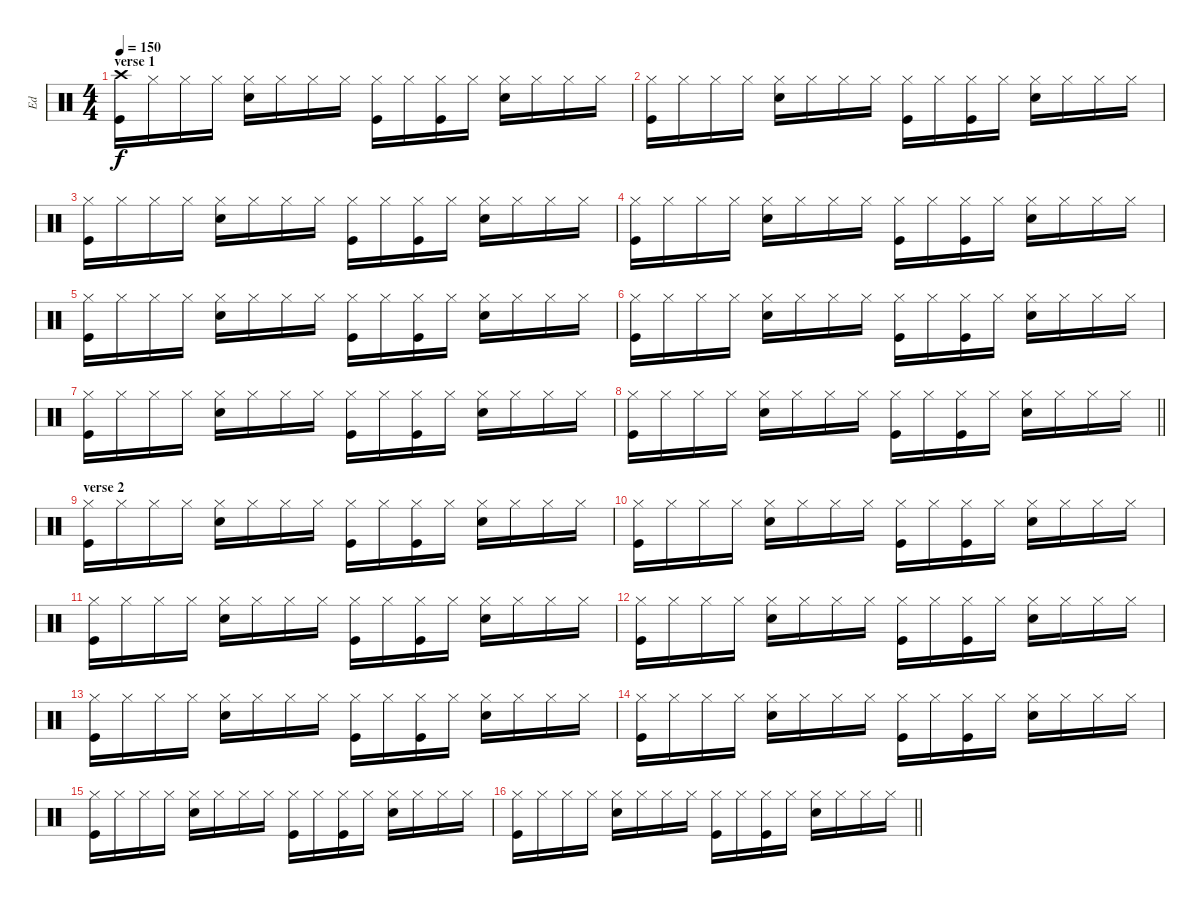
\track ("Ed" "Ed") {instrument percussion}
\staff {score}
\articulation defaults
\ts (4 4)
\section ("" "verse 1")
\tempo 150
\clef neutral
\ks c
("Crash high (hit)" "Kick (hit)").16{dy f} "Hi-Hat (closed)".16 "Hi-Hat (closed)".16 "Hi-Hat (closed)".16 ("Hi-Hat (closed)" "Electric Snare (hit)").16 "Hi-Hat (closed)".16 "Hi-Hat (closed)".16 "Hi-Hat (closed)".16 ("Hi-Hat (closed)" "Kick (hit)").16 "Hi-Hat (closed)".16 ("Hi-Hat (closed)" "Kick (hit)").16 "Hi-Hat (closed)".16 ("Hi-Hat (closed)" "Electric Snare (hit)").16 "Hi-Hat (closed)".16 "Hi-Hat (closed)".16 "Hi-Hat (closed)".16 |
("Hi-Hat (closed)" "Kick (hit)").16 "Hi-Hat (closed)".16 "Hi-Hat (closed)".16 "Hi-Hat (closed)".16 ("Hi-Hat (closed)" "Electric Snare (hit)").16 "Hi-Hat (closed)".16 "Hi-Hat (closed)".16 "Hi-Hat (closed)".16 ("Hi-Hat (closed)" "Kick (hit)").16 "Hi-Hat (closed)".16 ("Hi-Hat (closed)" "Kick (hit)").16 "Hi-Hat (closed)".16 ("Hi-Hat (closed)" "Electric Snare (hit)").16 "Hi-Hat (closed)".16 "Hi-Hat (closed)".16 "Hi-Hat (closed)".16 |
("Hi-Hat (closed)" "Kick (hit)").16 "Hi-Hat (closed)".16 "Hi-Hat (closed)".16 "Hi-Hat (closed)".16 ("Hi-Hat (closed)" "Electric Snare (hit)").16 "Hi-Hat (closed)".16 "Hi-Hat (closed)".16 "Hi-Hat (closed)".16 ("Hi-Hat (closed)" "Kick (hit)").16 "Hi-Hat (closed)".16 ("Hi-Hat (closed)" "Kick (hit)").16 "Hi-Hat (closed)".16 ("Hi-Hat (closed)" "Electric Snare (hit)").16 "Hi-Hat (closed)".16 "Hi-Hat (closed)".16 "Hi-Hat (closed)".16 |
("Hi-Hat (closed)" "Kick (hit)").16 "Hi-Hat (closed)".16 "Hi-Hat (closed)".16 "Hi-Hat (closed)".16 ("Hi-Hat (closed)" "Electric Snare (hit)").16 "Hi-Hat (closed)".16 "Hi-Hat (closed)".16 "Hi-Hat (closed)".16 ("Hi-Hat (closed)" "Kick (hit)").16 "Hi-Hat (closed)".16 ("Hi-Hat (closed)" "Kick (hit)").16 "Hi-Hat (closed)".16 ("Hi-Hat (closed)" "Electric Snare (hit)").16 "Hi-Hat (closed)".16 "Hi-Hat (closed)".16 "Hi-Hat (closed)".16 |
("Hi-Hat (closed)" "Kick (hit)").16 "Hi-Hat (closed)".16 "Hi-Hat (closed)".16 "Hi-Hat (closed)".16 ("Hi-Hat (closed)" "Electric Snare (hit)").16 "Hi-Hat (closed)".16 "Hi-Hat (closed)".16 "Hi-Hat (closed)".16 ("Hi-Hat (closed)" "Kick (hit)").16 "Hi-Hat (closed)".16 ("Hi-Hat (closed)" "Kick (hit)").16 "Hi-Hat (closed)".16 ("Hi-Hat (closed)" "Electric Snare (hit)").16 "Hi-Hat (closed)".16 "Hi-Hat (closed)".16 "Hi-Hat (closed)".16 |
("Hi-Hat (closed)" "Kick (hit)").16 "Hi-Hat (closed)".16 "Hi-Hat (closed)".16 "Hi-Hat (closed)".16 ("Hi-Hat (closed)" "Electric Snare (hit)").16 "Hi-Hat (closed)".16 "Hi-Hat (closed)".16 "Hi-Hat (closed)".16 ("Hi-Hat (closed)" "Kick (hit)").16 "Hi-Hat (closed)".16 ("Hi-Hat (closed)" "Kick (hit)").16 "Hi-Hat (closed)".16 ("Hi-Hat (closed)" "Electric Snare (hit)").16 "Hi-Hat (closed)".16 "Hi-Hat (closed)".16 "Hi-Hat (closed)".16 |
("Hi-Hat (closed)" "Kick (hit)").16 "Hi-Hat (closed)".16 "Hi-Hat (closed)".16 "Hi-Hat (closed)".16 ("Hi-Hat (closed)" "Electric Snare (hit)").16 "Hi-Hat (closed)".16 "Hi-Hat (closed)".16 "Hi-Hat (closed)".16 ("Hi-Hat (closed)" "Kick (hit)").16 "Hi-Hat (closed)".16 ("Hi-Hat (closed)" "Kick (hit)").16 "Hi-Hat (closed)".16 ("Hi-Hat (closed)" "Electric Snare (hit)").16 "Hi-Hat (closed)".16 "Hi-Hat (closed)".16 "Hi-Hat (closed)".16 |
\barLineRight lightlight
("Hi-Hat (closed)" "Kick (hit)").16 "Hi-Hat (closed)".16 "Hi-Hat (closed)".16 "Hi-Hat (closed)".16 ("Hi-Hat (closed)" "Electric Snare (hit)").16 "Hi-Hat (closed)".16 "Hi-Hat (closed)".16 "Hi-Hat (closed)".16 ("Hi-Hat (closed)" "Kick (hit)").16 "Hi-Hat (closed)".16 ("Hi-Hat (closed)" "Kick (hit)").16 "Hi-Hat (closed)".16 ("Hi-Hat (closed)" "Electric Snare (hit)").16 "Hi-Hat (closed)".16 "Hi-Hat (closed)".16 "Hi-Hat (closed)".16 |
\section ("" "verse 2")
("Hi-Hat (closed)" "Kick (hit)").16 "Hi-Hat (closed)".16 "Hi-Hat (closed)".16 "Hi-Hat (closed)".16 ("Hi-Hat (closed)" "Electric Snare (hit)").16 "Hi-Hat (closed)".16 "Hi-Hat (closed)".16 "Hi-Hat (closed)".16 ("Hi-Hat (closed)" "Kick (hit)").16 "Hi-Hat (closed)".16 ("Hi-Hat (closed)" "Kick (hit)").16 "Hi-Hat (closed)".16 ("Hi-Hat (closed)" "Electric Snare (hit)").16 "Hi-Hat (closed)".16 "Hi-Hat (closed)".16 "Hi-Hat (closed)".16 |
("Hi-Hat (closed)" "Kick (hit)").16 "Hi-Hat (closed)".16 "Hi-Hat (closed)".16 "Hi-Hat (closed)".16 ("Hi-Hat (closed)" "Electric Snare (hit)").16 "Hi-Hat (closed)".16 "Hi-Hat (closed)".16 "Hi-Hat (closed)".16 ("Hi-Hat (closed)" "Kick (hit)").16 "Hi-Hat (closed)".16 ("Hi-Hat (closed)" "Kick (hit)").16 "Hi-Hat (closed)".16 ("Hi-Hat (closed)" "Electric Snare (hit)").16 "Hi-Hat (closed)".16 "Hi-Hat (closed)".16 "Hi-Hat (closed)".16 |
("Hi-Hat (closed)" "Kick (hit)").16 "Hi-Hat (closed)".16 "Hi-Hat (closed)".16 "Hi-Hat (closed)".16 ("Hi-Hat (closed)" "Electric Snare (hit)").16 "Hi-Hat (closed)".16 "Hi-Hat (closed)".16 "Hi-Hat (closed)".16 ("Hi-Hat (closed)" "Kick (hit)").16 "Hi-Hat (closed)".16 ("Hi-Hat (closed)" "Kick (hit)").16 "Hi-Hat (closed)".16 ("Hi-Hat (closed)" "Electric Snare (hit)").16 "Hi-Hat (closed)".16 "Hi-Hat (closed)".16 "Hi-Hat (closed)".16 |
("Hi-Hat (closed)" "Kick (hit)").16 "Hi-Hat (closed)".16 "Hi-Hat (closed)".16 "Hi-Hat (closed)".16 ("Hi-Hat (closed)" "Electric Snare (hit)").16 "Hi-Hat (closed)".16 "Hi-Hat (closed)".16 "Hi-Hat (closed)".16 ("Hi-Hat (closed)" "Kick (hit)").16 "Hi-Hat (closed)".16 ("Hi-Hat (closed)" "Kick (hit)").16 "Hi-Hat (closed)".16 ("Hi-Hat (closed)" "Electric Snare (hit)").16 "Hi-Hat (closed)".16 "Hi-Hat (closed)".16 "Hi-Hat (closed)".16 |
("Hi-Hat (closed)" "Kick (hit)").16 "Hi-Hat (closed)".16 "Hi-Hat (closed)".16 "Hi-Hat (closed)".16 ("Hi-Hat (closed)" "Electric Snare (hit)").16 "Hi-Hat (closed)".16 "Hi-Hat (closed)".16 "Hi-Hat (closed)".16 ("Hi-Hat (closed)" "Kick (hit)").16 "Hi-Hat (closed)".16 ("Hi-Hat (closed)" "Kick (hit)").16 "Hi-Hat (closed)".16 ("Hi-Hat (closed)" "Electric Snare (hit)").16 "Hi-Hat (closed)".16 "Hi-Hat (closed)".16 "Hi-Hat (closed)".16 |
("Hi-Hat (closed)" "Kick (hit)").16 "Hi-Hat (closed)".16 "Hi-Hat (closed)".16 "Hi-Hat (closed)".16 ("Hi-Hat (closed)" "Electric Snare (hit)").16 "Hi-Hat (closed)".16 "Hi-Hat (closed)".16 "Hi-Hat (closed)".16 ("Hi-Hat (closed)" "Kick (hit)").16 "Hi-Hat (closed)".16 ("Hi-Hat (closed)" "Kick (hit)").16 "Hi-Hat (closed)".16 ("Hi-Hat (closed)" "Electric Snare (hit)").16 "Hi-Hat (closed)".16 "Hi-Hat (closed)".16 "Hi-Hat (closed)".16 |
("Hi-Hat (closed)" "Kick (hit)").16 "Hi-Hat (closed)".16 "Hi-Hat (closed)".16 "Hi-Hat (closed)".16 ("Hi-Hat (closed)" "Electric Snare (hit)").16 "Hi-Hat (closed)".16 "Hi-Hat (closed)".16 "Hi-Hat (closed)".16 ("Hi-Hat (closed)" "Kick (hit)").16 "Hi-Hat (closed)".16 ("Hi-Hat (closed)" "Kick (hit)").16 "Hi-Hat (closed)".16 ("Hi-Hat (closed)" "Electric Snare (hit)").16 "Hi-Hat (closed)".16 "Hi-Hat (closed)".16 "Hi-Hat (closed)".16 |
\barLineRight lightlight
("Hi-Hat (closed)" "Kick (hit)").16 "Hi-Hat (closed)".16 "Hi-Hat (closed)".16 "Hi-Hat (closed)".16 ("Hi-Hat (closed)" "Electric Snare (hit)").16 "Hi-Hat (closed)".16 "Hi-Hat (closed)".16 "Hi-Hat (closed)".16 ("Hi-Hat (closed)" "Kick (hit)").16 "Hi-Hat (closed)".16 ("Hi-Hat (closed)" "Kick (hit)").16 "Hi-Hat (closed)".16 ("Hi-Hat (closed)" "Electric Snare (hit)").16 "Hi-Hat (closed)".16 "Hi-Hat (closed)".16 "Hi-Hat (closed)".16
